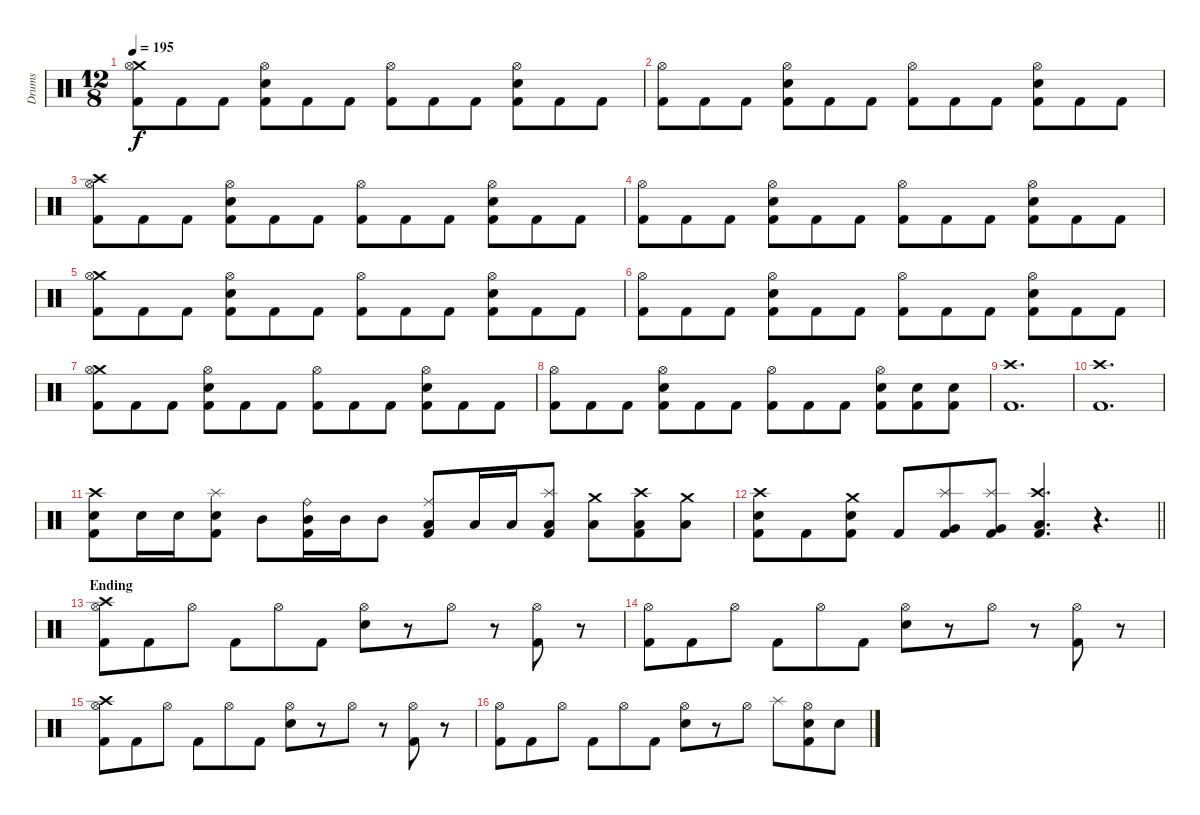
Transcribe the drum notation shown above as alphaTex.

\track ("Drums" "Drums") {instrument percussion}
\staff {score}
\articulation defaults
\ts (12 8)
\tempo 195
\clef neutral
\ks c
("Crash medium (hit)" "Hi-Hat (open)" "Kick (hit) 2").8{dy f} "Kick (hit) 2".8 "Kick (hit) 2".8 ("Hi-Hat (open)" "Snare (hit) 2" "Kick (hit) 2").8 "Kick (hit) 2".8 "Kick (hit) 2".8 ("Hi-Hat (open)" "Kick (hit) 2").8 "Kick (hit) 2".8 "Kick (hit) 2".8 ("Hi-Hat (open)" "Snare (hit) 2" "Kick (hit) 2").8 "Kick (hit) 2".8 "Kick (hit) 2".8 |
("Hi-Hat (open)" "Kick (hit) 2").8 "Kick (hit) 2".8 "Kick (hit) 2".8 ("Hi-Hat (open)" "Snare (hit) 2" "Kick (hit) 2").8 "Kick (hit) 2".8 "Kick (hit) 2".8 ("Hi-Hat (open)" "Kick (hit) 2").8 "Kick (hit) 2".8 "Kick (hit) 2".8 ("Hi-Hat (open)" "Snare (hit) 2" "Kick (hit) 2").8 "Kick (hit) 2".8 "Kick (hit) 2".8 |
("Crash high (hit)" "Hi-Hat (open)" "Kick (hit) 2").8 "Kick (hit) 2".8 "Kick (hit) 2".8 ("Hi-Hat (open)" "Snare (hit) 2" "Kick (hit) 2").8 "Kick (hit) 2".8 "Kick (hit) 2".8 ("Hi-Hat (open)" "Kick (hit) 2").8 "Kick (hit) 2".8 "Kick (hit) 2".8 ("Hi-Hat (open)" "Snare (hit) 2" "Kick (hit) 2").8 "Kick (hit) 2".8 "Kick (hit) 2".8 |
("Hi-Hat (open)" "Kick (hit) 2").8 "Kick (hit) 2".8 "Kick (hit) 2".8 ("Hi-Hat (open)" "Snare (hit) 2" "Kick (hit) 2").8 "Kick (hit) 2".8 "Kick (hit) 2".8 ("Hi-Hat (open)" "Kick (hit) 2").8 "Kick (hit) 2".8 "Kick (hit) 2".8 ("Hi-Hat (open)" "Snare (hit) 2" "Kick (hit) 2").8 "Kick (hit) 2".8 "Kick (hit) 2".8 |
("Crash medium (hit)" "Hi-Hat (open)" "Kick (hit) 2").8 "Kick (hit) 2".8 "Kick (hit) 2".8 ("Hi-Hat (open)" "Snare (hit) 2" "Kick (hit) 2").8 "Kick (hit) 2".8 "Kick (hit) 2".8 ("Hi-Hat (open)" "Kick (hit) 2").8 "Kick (hit) 2".8 "Kick (hit) 2".8 ("Hi-Hat (open)" "Snare (hit) 2" "Kick (hit) 2").8 "Kick (hit) 2".8 "Kick (hit) 2".8 |
("Hi-Hat (open)" "Kick (hit) 2").8 "Kick (hit) 2".8 "Kick (hit) 2".8 ("Hi-Hat (open)" "Snare (hit) 2" "Kick (hit) 2").8 "Kick (hit) 2".8 "Kick (hit) 2".8 ("Hi-Hat (open)" "Kick (hit) 2").8 "Kick (hit) 2".8 "Kick (hit) 2".8 ("Hi-Hat (open)" "Snare (hit) 2" "Kick (hit) 2").8 "Kick (hit) 2".8 "Kick (hit) 2".8 |
("Crash medium (hit)" "Hi-Hat (open)" "Kick (hit) 2").8 "Kick (hit) 2".8 "Kick (hit) 2".8 ("Hi-Hat (open)" "Snare (hit) 2" "Kick (hit) 2").8 "Kick (hit) 2".8 "Kick (hit) 2".8 ("Hi-Hat (open)" "Kick (hit) 2").8 "Kick (hit) 2".8 "Kick (hit) 2".8 ("Hi-Hat (open)" "Snare (hit) 2" "Kick (hit) 2").8 "Kick (hit) 2".8 "Kick (hit) 2".8 |
("Hi-Hat (open)" "Kick (hit) 2").8 "Kick (hit) 2".8 "Kick (hit) 2".8 ("Hi-Hat (open)" "Snare (hit) 2" "Kick (hit) 2").8 "Kick (hit) 2".8 "Kick (hit) 2".8 ("Hi-Hat (open)" "Kick (hit) 2").8 "Kick (hit) 2".8 "Kick (hit) 2".8 ("Hi-Hat (open)" "Snare (hit) 2" "Kick (hit) 2").8 ("Snare (hit) 2" "Kick (hit) 2").8 ("Snare (hit) 2" "Kick (hit) 2").8 |
("Crash high (hit)" "Kick (hit) 2").1{d} |
("Crash high (hit)" "Kick (hit) 2").1{d} |
("Crash high (hit)" "Snare (hit) 2" "Kick (hit) 2").8 "Snare (hit) 2".16 "Snare (hit) 2".16 ("Splash (hit)" "Snare (hit) 2" "Kick (hit) 2").8 "Mid Tom (hit)".8 ("Ride (bell)" "Mid Tom (hit)" "Kick (hit) 2").16 "Mid Tom (hit)".16 "Mid Tom (hit)".8 ("Ride (middle)" "Low Tom (hit)" "Kick (hit) 2").8 "Low Tom (hit)".16 "Low Tom (hit)".16 ("Splash (hit)" "Low Tom (hit)" "Kick (hit) 2").8 ("Crash medium (hit)" "Low Floor Tom (hit)").8 ("Crash high (hit)" "Low Floor Tom (hit)" "Kick (hit) 2").8 ("Crash medium (hit)" "Low Floor Tom (hit)").8 |
\barLineRight lightlight
("Crash high (hit)" "Snare (hit) 2" "Kick (hit) 2").8 "Kick (hit) 2".8 ("Crash medium (hit)" "Snare (hit) 2" "Kick (hit) 2").8 "Kick (hit) 2".8 ("Splash (hit)" "Very Low Tom (hit)" "Kick (hit) 2").8 ("Splash (hit)" "Very Low Tom (hit)" "Kick (hit) 2").8 ("Crash high (hit)" "Low Floor Tom (hit)" "Kick (hit) 2").4{d} r.4{d} |
\section ("" "Ending")
("Crash high (hit)" "Hi-Hat (open)" "Kick (hit) 2").8 "Kick (hit) 2".8 "Hi-Hat (open)".8 "Kick (hit) 2".8 "Hi-Hat (open)".8 "Kick (hit) 2".8 ("Hi-Hat (open)" "Snare (hit) 2").8 r.8 "Hi-Hat (open)".8 r.8 ("Hi-Hat (open)" "Kick (hit) 2").8 r.8 |
("Hi-Hat (open)" "Kick (hit) 2").8 "Kick (hit) 2".8 "Hi-Hat (open)".8 "Kick (hit) 2".8 "Hi-Hat (open)".8 "Kick (hit) 2".8 ("Hi-Hat (open)" "Snare (hit) 2").8 r.8 "Hi-Hat (open)".8 r.8 ("Hi-Hat (open)" "Kick (hit) 2").8 r.8 |
("Crash high (hit)" "Hi-Hat (open)" "Kick (hit) 2").8 "Kick (hit) 2".8 "Hi-Hat (open)".8 "Kick (hit) 2".8 "Hi-Hat (open)".8 "Kick (hit) 2".8 ("Hi-Hat (open)" "Snare (hit) 2").8 r.8 "Hi-Hat (open)".8 r.8 ("Hi-Hat (open)" "Kick (hit) 2").8 r.8 |
("Hi-Hat (open)" "Kick (hit) 2").8 "Kick (hit) 2".8 "Hi-Hat (open)".8 "Kick (hit) 2".8 "Hi-Hat (open)".8 "Kick (hit) 2".8 ("Hi-Hat (open)" "Snare (hit) 2").8 r.8 "Hi-Hat (open)".8 "Splash (hit)".8 ("Hi-Hat (open)" "Snare (hit) 2" "Kick (hit) 2").8 "Snare (hit) 2".8
